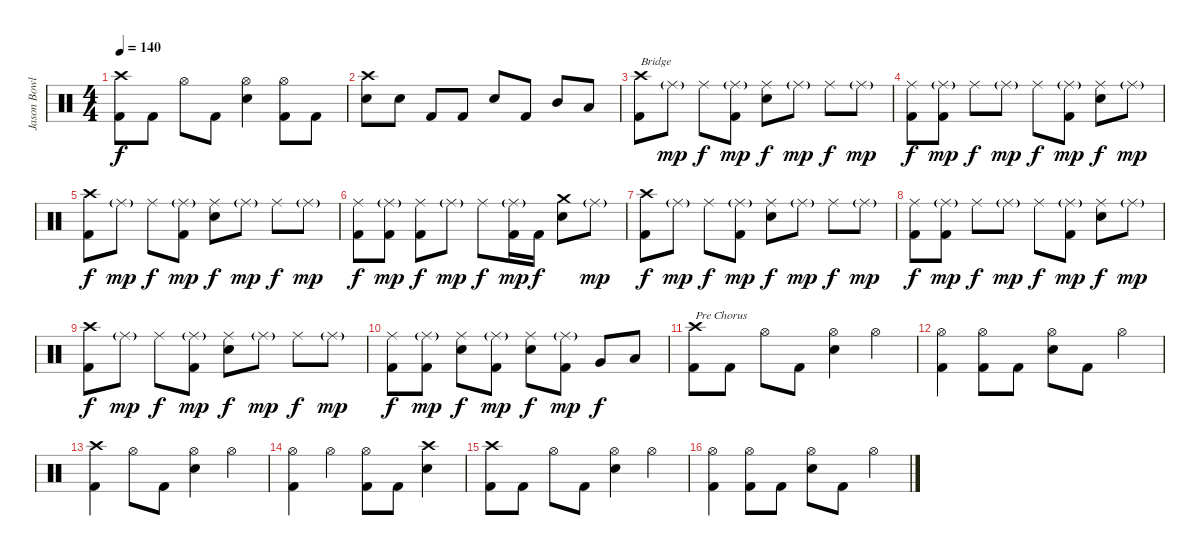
\track ("Jason Bowld" "Jason Bowl") {instrument percussion}
\staff {score}
\articulation defaults
\ts (4 4)
\tempo 140
\clef neutral
\ks c
("Crash high (hit)" "Kick (hit) 2").8{dy f} "Kick (hit) 2".8 "Hi-Hat (open)".8 "Kick (hit) 2".8 ("Hi-Hat (open)" "Snare (hit) 2").4 ("Hi-Hat (open)" "Kick (hit) 2").8 "Kick (hit) 2".8 |
("Crash high (hit)" "Snare (hit) 2").8 "Snare (hit) 2".8 "Kick (hit) 2".8 "Kick (hit) 2".8 "Snare (hit) 2".8 "Kick (hit) 2".8 "Mid Tom (hit)".8 "Low Tom (hit)".8 |
("Crash high (hit)" "Kick (hit) 2").8{txt "Bridge"} "Ride (middle)"{g}.8{dy mp} "Ride (middle)".8{dy f} ("Ride (middle)"{g} "Kick (hit) 2").8{dy mp} ("Ride (middle)" "Snare (hit) 2").8{dy f} "Ride (middle)"{g}.8{dy mp} "Ride (middle)".8{dy f} "Ride (middle)"{g}.8{dy mp} |
("Ride (middle)" "Kick (hit) 2").8{dy f} ("Ride (middle)"{g} "Kick (hit) 2").8{dy mp} "Ride (middle)".8{dy f} "Ride (middle)"{g}.8{dy mp} "Ride (middle)".8{dy f} ("Ride (middle)"{g} "Kick (hit) 2").8{dy mp} ("Ride (middle)" "Snare (hit) 2").8{dy f} "Ride (middle)"{g}.8{dy mp} |
("Crash high (hit)" "Kick (hit) 2").8{dy f} "Ride (middle)"{g}.8{dy mp} "Ride (middle)".8{dy f} ("Ride (middle)"{g} "Kick (hit) 2").8{dy mp} ("Ride (middle)" "Snare (hit) 2").8{dy f} "Ride (middle)"{g}.8{dy mp} "Ride (middle)".8{dy f} "Ride (middle)"{g}.8{dy mp} |
("Ride (middle)" "Kick (hit) 2").8{dy f} ("Ride (middle)"{g} "Kick (hit) 2").8{dy mp} ("Ride (middle)" "Kick (hit) 2").8{dy f} "Ride (middle)"{g}.8{dy mp} "Ride (middle)".8{dy f} ("Ride (middle)"{g} "Kick (hit) 2").16{dy mp} "Kick (hit) 2".16{dy f} ("Crash medium (hit)" "Snare (hit) 2").8 "Ride (middle)"{g}.8{dy mp} |
("Crash high (hit)" "Kick (hit) 2").8{dy f} "Ride (middle)"{g}.8{dy mp} "Ride (middle)".8{dy f} ("Ride (middle)"{g} "Kick (hit) 2").8{dy mp} ("Ride (middle)" "Snare (hit) 2").8{dy f} "Ride (middle)"{g}.8{dy mp} "Ride (middle)".8{dy f} "Ride (middle)"{g}.8{dy mp} |
("Ride (middle)" "Kick (hit) 2").8{dy f} ("Ride (middle)"{g} "Kick (hit) 2").8{dy mp} "Ride (middle)".8{dy f} "Ride (middle)"{g}.8{dy mp} "Ride (middle)".8{dy f} ("Ride (middle)"{g} "Kick (hit) 2").8{dy mp} ("Ride (middle)" "Snare (hit) 2").8{dy f} "Ride (middle)"{g}.8{dy mp} |
("Crash high (hit)" "Kick (hit) 2").8{dy f} "Ride (middle)"{g}.8{dy mp} "Ride (middle)".8{dy f} ("Ride (middle)"{g} "Kick (hit) 2").8{dy mp} ("Ride (middle)" "Snare (hit) 2").8{dy f} "Ride (middle)"{g}.8{dy mp} "Ride (middle)".8{dy f} "Ride (middle)"{g}.8{dy mp} |
("Ride (middle)" "Kick (hit) 2").8{dy f} ("Ride (middle)"{g} "Kick (hit) 2").8{dy mp} ("Ride (middle)" "Snare (hit) 2").8{dy f} ("Ride (middle)"{g} "Kick (hit) 2").8{dy mp} ("Ride (middle)" "Snare (hit) 2").8{dy f} ("Ride (middle)"{g} "Kick (hit) 2").8{dy mp} "Very Low Tom (hit)".8{dy f} "Low Tom (hit)".8 |
("Crash high (hit)" "Kick (hit) 2").8{txt "Pre Chorus"} "Kick (hit) 2".8 "Hi-Hat (open)".8 "Kick (hit) 2".8 ("Hi-Hat (open)" "Snare (hit) 2").4 "Hi-Hat (open)".4 |
("Hi-Hat (open)" "Kick (hit) 2").4 ("Hi-Hat (open)" "Kick (hit) 2").8 "Kick (hit) 2".8 ("Hi-Hat (open)" "Snare (hit) 2").8 "Kick (hit) 2".8 "Hi-Hat (open)".4 |
("Crash high (hit)" "Kick (hit) 2").4 "Hi-Hat (open)".8 "Kick (hit) 2".8 ("Hi-Hat (open)" "Snare (hit) 2").4 "Hi-Hat (open)".4 |
("Hi-Hat (open)" "Kick (hit) 2").4 "Hi-Hat (open)".4 ("Hi-Hat (open)" "Kick (hit) 2").8 "Kick (hit) 2".8 ("Crash high (hit)" "Snare (hit) 2").4 |
("Crash high (hit)" "Kick (hit) 2").8 "Kick (hit) 2".8 "Hi-Hat (open)".8 "Kick (hit) 2".8 ("Hi-Hat (open)" "Snare (hit) 2").4 "Hi-Hat (open)".4 |
("Hi-Hat (open)" "Kick (hit) 2").4 ("Hi-Hat (open)" "Kick (hit) 2").8 "Kick (hit) 2".8 ("Hi-Hat (open)" "Snare (hit) 2").8 "Kick (hit) 2".8 "Hi-Hat (open)".4
